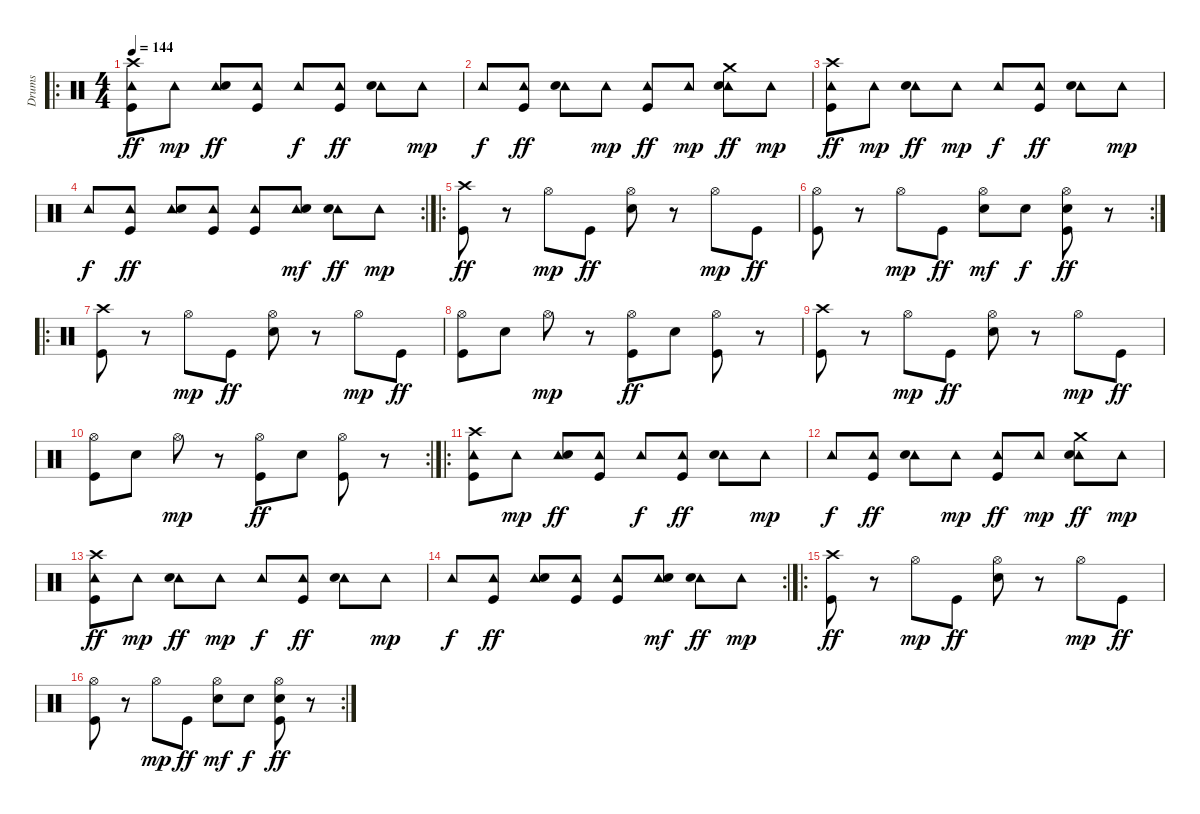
\track ("Drums" "Drums") {instrument percussion}
\staff {score}
\articulation defaults
\ro
\ts (4 4)
\tempo 144
\clef neutral
\ks c
("Crash high (hit)" "Tambourine (hit)" "Kick (hit)").8{dy ff} "Tambourine (hit)".8{dy mp} ("Tambourine (hit)" "Snare (hit) 2").8{dy ff} ("Tambourine (hit)" "Kick (hit)").8 "Tambourine (hit)".8{dy f} ("Tambourine (hit)" "Kick (hit)").8{dy ff} ("Tambourine (hit)" "Snare (hit) 2").8 "Tambourine (hit)".8{dy mp} |
"Tambourine (hit)".8{dy f} ("Tambourine (hit)" "Kick (hit)").8{dy ff} ("Tambourine (hit)" "Snare (hit) 2").8 "Tambourine (hit)".8{dy mp} ("Tambourine (hit)" "Kick (hit)").8{dy ff} "Tambourine (hit)".8{dy mp} ("Crash medium (hit)" "Tambourine (hit)" "Snare (hit) 2").8{dy ff} "Tambourine (hit)".8{dy mp} |
("Crash high (hit)" "Tambourine (hit)" "Kick (hit)").8{dy ff} "Tambourine (hit)".8{dy mp} ("Tambourine (hit)" "Snare (hit) 2").8{dy ff} "Tambourine (hit)".8{dy mp} "Tambourine (hit)".8{dy f} ("Tambourine (hit)" "Kick (hit)").8{dy ff} ("Tambourine (hit)" "Snare (hit) 2").8 "Tambourine (hit)".8{dy mp} |
\rc 2 "Tambourine (hit)".8{dy f}
("Tambourine (hit)" "Kick (hit)").8{dy ff} ("Tambourine (hit)" "Snare (hit) 2").8 ("Tambourine (hit)" "Kick (hit)").8 ("Tambourine (hit)" "Kick (hit)").8 ("Tambourine (hit)" "Snare (hit) 2").8{dy mf} ("Tambourine (hit)" "Snare (hit) 2").8{dy ff} "Tambourine (hit)".8{dy mp} |
\ro
("Crash high (hit)" "Kick (hit)").8{dy ff} r.8 "Hi-Hat (open)".8{dy mp} "Kick (hit)".8{dy ff} ("Hi-Hat (open)" "Snare (hit) 2").8 r.8 "Hi-Hat (open)".8{dy mp} "Kick (hit)".8{dy ff} |
\rc 2
("Hi-Hat (open)" "Kick (hit)").8 r.8 "Hi-Hat (open)".8{dy mp} "Kick (hit)".8{dy ff} ("Hi-Hat (open)" "Snare (hit) 2").8{dy mf} "Snare (hit) 2".8{dy f} ("Hi-Hat (open)" "Snare (hit) 2" "Kick (hit)").8{dy ff} r.8 |
\ro
("Crash high (hit)" "Kick (hit)").8 r.8 "Hi-Hat (open)".8{dy mp} "Kick (hit)".8{dy ff} ("Hi-Hat (open)" "Snare (hit) 2").8 r.8 "Hi-Hat (open)".8{dy mp} "Kick (hit)".8{dy ff} |
("Hi-Hat (open)" "Kick (hit)").8 "Snare (hit) 2".8 "Hi-Hat (open)".8{dy mp} r.8 ("Hi-Hat (open)" "Kick (hit)").8{dy ff} "Snare (hit) 2".8 ("Hi-Hat (open)" "Kick (hit)").8 r.8 |
("Crash high (hit)" "Kick (hit)").8 r.8 "Hi-Hat (open)".8{dy mp} "Kick (hit)".8{dy ff} ("Hi-Hat (open)" "Snare (hit) 2").8 r.8 "Hi-Hat (open)".8{dy mp} "Kick (hit)".8{dy ff} |
\rc 2
("Hi-Hat (open)" "Kick (hit)").8 "Snare (hit) 2".8 "Hi-Hat (open)".8{dy mp} r.8 ("Hi-Hat (open)" "Kick (hit)").8{dy ff} "Snare (hit) 2".8 ("Hi-Hat (open)" "Kick (hit)").8 r.8 |
\ro
("Crash high (hit)" "Tambourine (hit)" "Kick (hit)").8 "Tambourine (hit)".8{dy mp} ("Tambourine (hit)" "Snare (hit) 2").8{dy ff} ("Tambourine (hit)" "Kick (hit)").8 "Tambourine (hit)".8{dy f} ("Tambourine (hit)" "Kick (hit)").8{dy ff} ("Tambourine (hit)" "Snare (hit) 2").8 "Tambourine (hit)".8{dy mp} |
"Tambourine (hit)".8{dy f} ("Tambourine (hit)" "Kick (hit)").8{dy ff} ("Tambourine (hit)" "Snare (hit) 2").8 "Tambourine (hit)".8{dy mp} ("Tambourine (hit)" "Kick (hit)").8{dy ff} "Tambourine (hit)".8{dy mp} ("Crash medium (hit)" "Tambourine (hit)" "Snare (hit) 2").8{dy ff} "Tambourine (hit)".8{dy mp} |
("Crash high (hit)" "Tambourine (hit)" "Kick (hit)").8{dy ff} "Tambourine (hit)".8{dy mp} ("Tambourine (hit)" "Snare (hit) 2").8{dy ff} "Tambourine (hit)".8{dy mp} "Tambourine (hit)".8{dy f} ("Tambourine (hit)" "Kick (hit)").8{dy ff} ("Tambourine (hit)" "Snare (hit) 2").8 "Tambourine (hit)".8{dy mp} |
\rc 2 "Tambourine (hit)".8{dy f}
("Tambourine (hit)" "Kick (hit)").8{dy ff} ("Tambourine (hit)" "Snare (hit) 2").8 ("Tambourine (hit)" "Kick (hit)").8 ("Tambourine (hit)" "Kick (hit)").8 ("Tambourine (hit)" "Snare (hit) 2").8{dy mf} ("Tambourine (hit)" "Snare (hit) 2").8{dy ff} "Tambourine (hit)".8{dy mp} |
\ro
("Crash high (hit)" "Kick (hit)").8{dy ff} r.8 "Hi-Hat (open)".8{dy mp} "Kick (hit)".8{dy ff} ("Hi-Hat (open)" "Snare (hit) 2").8 r.8 "Hi-Hat (open)".8{dy mp} "Kick (hit)".8{dy ff} |
\rc 2
("Hi-Hat (open)" "Kick (hit)").8 r.8 "Hi-Hat (open)".8{dy mp} "Kick (hit)".8{dy ff} ("Hi-Hat (open)" "Snare (hit) 2").8{dy mf} "Snare (hit) 2".8{dy f} ("Hi-Hat (open)" "Snare (hit) 2" "Kick (hit)").8{dy ff} r.8
